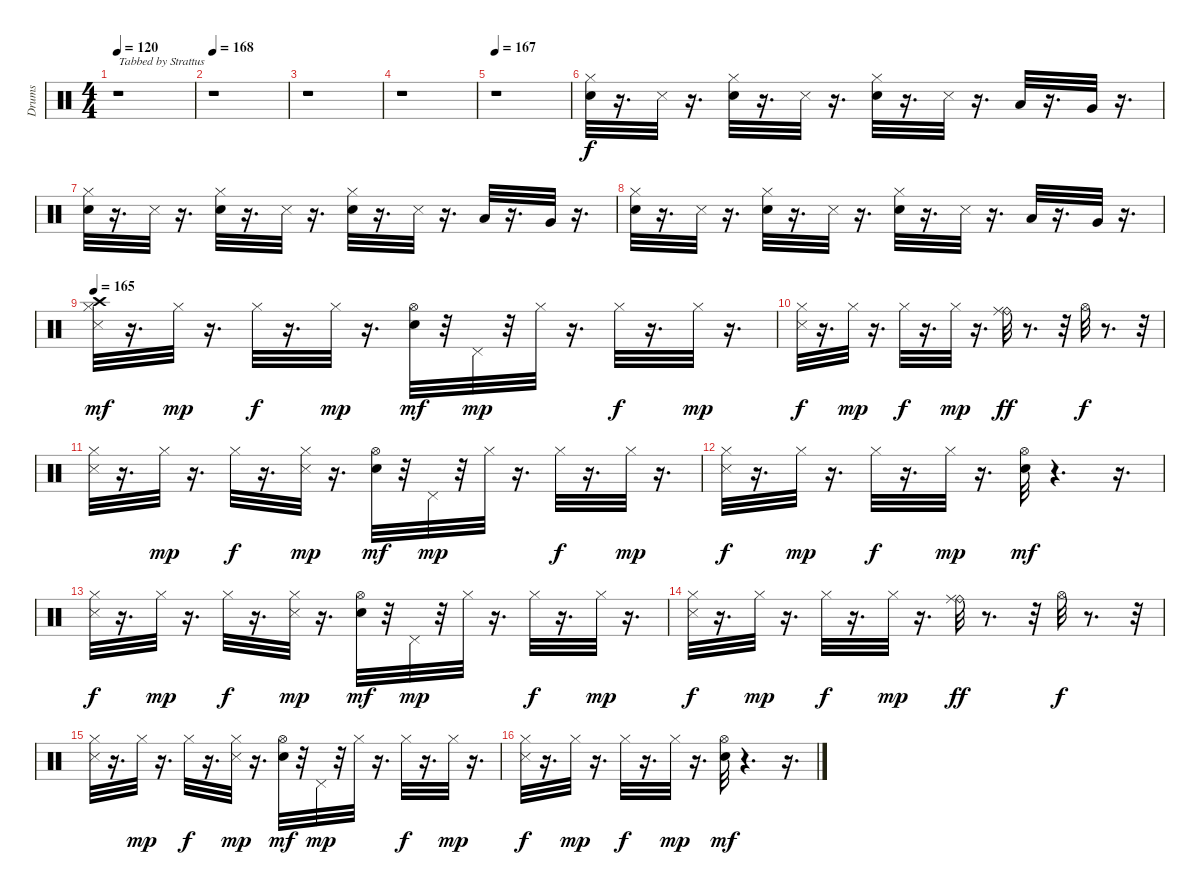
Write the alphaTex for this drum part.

\track ("Drums" "Drums") {instrument percussion}
\staff {score}
\articulation defaults
\ts (4 4)
\tempo 120
\clef neutral
\ks c
r.1{txt "Tabbed by Strattus" dy f} |
\tempo 168
r.1 |
r.1 |
r.1 |
\tempo 167
r.1 |
("Snare (hit) 2" "Hi-Hat (closed)").32 r.16{d} "Metronome (hit)".32 r.16{d} ("Hi-Hat (closed)" "Snare (hit) 2").32 r.16{d} "Metronome (hit)".32 r.16{d} ("Hi-Hat (closed)" "Snare (hit) 2").32 r.16{d} "Metronome (hit)".32 r.16{d} "Low Tom (hit)".32 r.16{d} "Very Low Tom (hit)".32 r.16{d} |
("Snare (hit) 2" "Hi-Hat (closed)").32 r.16{d} "Metronome (hit)".32 r.16{d} ("Hi-Hat (closed)" "Snare (hit) 2").32 r.16{d} "Metronome (hit)".32 r.16{d} ("Hi-Hat (closed)" "Snare (hit) 2").32 r.16{d} "Metronome (hit)".32 r.16{d} "Low Tom (hit)".32 r.16{d} "Very Low Tom (hit)".32 r.16{d} |
("Snare (hit) 2" "Hi-Hat (closed)").32 r.16{d} "Metronome (hit)".32 r.16{d} ("Hi-Hat (closed)" "Snare (hit) 2").32 r.16{d} "Metronome (hit)".32 r.16{d} ("Hi-Hat (closed)" "Snare (hit) 2").32 r.16{d} "Metronome (hit)".32 r.16{d} "Low Tom (hit)".32 r.16{d} "Very Low Tom (hit)".32 r.16{d} |
\tempo 165
("Crash high (hit)" "Metronome (hit)" "Hi-Hat (closed)").32{dy mf} r.16{d} "Hi-Hat (closed)".32{dy mp} r.16{d} "Hi-Hat (closed)".32{dy f} r.16{d} "Hi-Hat (closed)".32{dy mp} r.16{d} ("Snare (hit) 2" "Hi-Hat (open)").32{dy mf} r.32 "Pedal Hi-Hat (hit)".32{dy mp} r.32 "Hi-Hat (closed)".32 r.16{d} "Hi-Hat (closed)".32{dy f} r.16{d} "Hi-Hat (closed)".32{dy mp} r.16{d} |
("Metronome (hit)" "Hi-Hat (closed)").32{dy f} r.16{d} "Hi-Hat (closed)".32{dy mp} r.16{d} "Hi-Hat (closed)".32{dy f} r.16{d} "Hi-Hat (closed)".32{dy mp} r.16{d} ("Ride (bell)" "Ride (middle)").32{dy ff} r.8{d} r.32 "Hi-Hat (open)".32{dy f} r.8{d} r.32 |
("Metronome (hit)" "Hi-Hat (closed)").32 r.16{d} "Hi-Hat (closed)".32{dy mp} r.16{d} "Hi-Hat (closed)".32{dy f} r.16{d} ("Metronome (hit)" "Hi-Hat (closed)").32{dy mp} r.16{d} ("Snare (hit) 2" "Hi-Hat (open)").32{dy mf} r.32 "Pedal Hi-Hat (hit)".32{dy mp} r.32 "Hi-Hat (closed)".32 r.16{d} "Hi-Hat (closed)".32{dy f} r.16{d} "Hi-Hat (closed)".32{dy mp} r.16{d} |
("Metronome (hit)" "Hi-Hat (closed)").32{dy f} r.16{d} "Hi-Hat (closed)".32{dy mp} r.16{d} "Hi-Hat (closed)".32{dy f} r.16{d} "Hi-Hat (closed)".32{dy mp} r.16{d} ("Snare (hit) 2" "Hi-Hat (open)").32{dy mf} r.4{d} r.16{d} |
("Metronome (hit)" "Hi-Hat (closed)").32{dy f} r.16{d} "Hi-Hat (closed)".32{dy mp} r.16{d} "Hi-Hat (closed)".32{dy f} r.16{d} ("Metronome (hit)" "Hi-Hat (closed)").32{dy mp} r.16{d} ("Snare (hit) 2" "Hi-Hat (open)").32{dy mf} r.32 "Pedal Hi-Hat (hit)".32{dy mp} r.32 "Hi-Hat (closed)".32 r.16{d} "Hi-Hat (closed)".32{dy f} r.16{d} "Hi-Hat (closed)".32{dy mp} r.16{d} |
("Metronome (hit)" "Hi-Hat (closed)").32{dy f} r.16{d} "Hi-Hat (closed)".32{dy mp} r.16{d} "Hi-Hat (closed)".32{dy f} r.16{d} "Hi-Hat (closed)".32{dy mp} r.16{d} ("Ride (bell)" "Ride (middle)").32{dy ff} r.8{d} r.32 "Hi-Hat (open)".32{dy f} r.8{d} r.32 |
("Metronome (hit)" "Hi-Hat (closed)").32 r.16{d} "Hi-Hat (closed)".32{dy mp} r.16{d} "Hi-Hat (closed)".32{dy f} r.16{d} ("Metronome (hit)" "Hi-Hat (closed)").32{dy mp} r.16{d} ("Snare (hit) 2" "Hi-Hat (open)").32{dy mf} r.32 "Pedal Hi-Hat (hit)".32{dy mp} r.32 "Hi-Hat (closed)".32 r.16{d} "Hi-Hat (closed)".32{dy f} r.16{d} "Hi-Hat (closed)".32{dy mp} r.16{d} |
("Metronome (hit)" "Hi-Hat (closed)").32{dy f} r.16{d} "Hi-Hat (closed)".32{dy mp} r.16{d} "Hi-Hat (closed)".32{dy f} r.16{d} "Hi-Hat (closed)".32{dy mp} r.16{d} ("Snare (hit) 2" "Hi-Hat (open)").32{dy mf} r.4{d} r.16{d}
